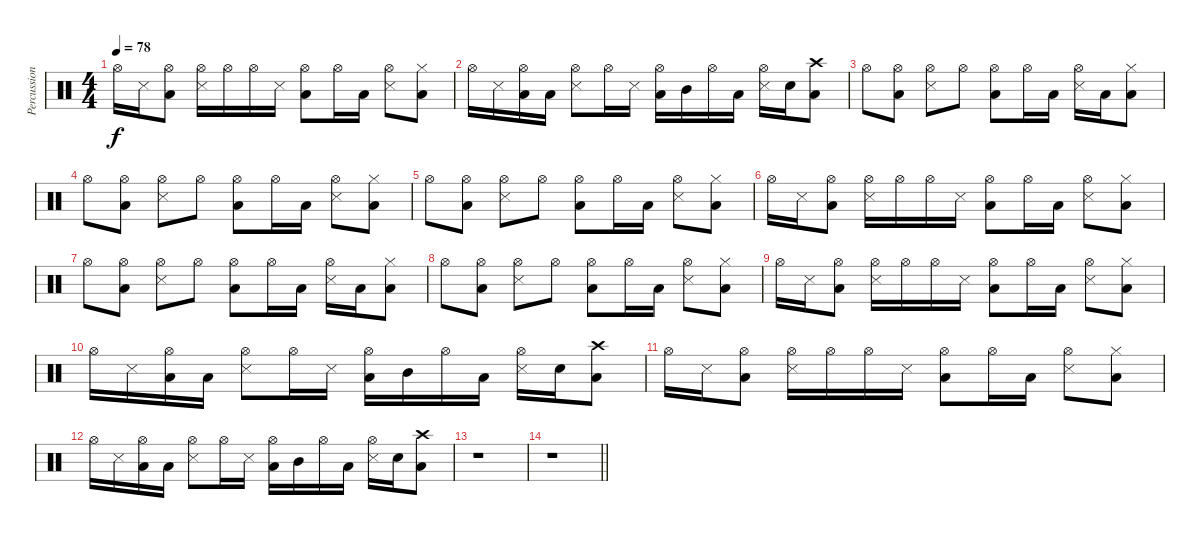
\track ("Percussions" "Percussion") {instrument percussion}
\staff {score}
\articulation defaults
\ts (4 4)
\tempo 78
\clef neutral
\ks c "Hi-Hat (open)".16{dy f} "Snare (side stick) 3".16
("Hi-Hat (open)" "Low Floor Tom (hit)").8 ("Hi-Hat (open)" "Snare (side stick) 3").16 "Hi-Hat (open)".16 "Hi-Hat (open)".16 "Snare (side stick) 3".16 ("Hi-Hat (open)" "Low Floor Tom (hit)").8 "Hi-Hat (open)".16 "Low Floor Tom (hit)".16 ("Hi-Hat (open)" "Snare (side stick) 3").8 ("Hi-Hat (closed)" "Low Floor Tom (hit)").8 |
"Hi-Hat (open)".16 "Snare (side stick) 3".16 ("Hi-Hat (open)" "Low Floor Tom (hit)").16 "Low Floor Tom (hit)".16 ("Hi-Hat (open)" "Snare (side stick) 3").8 "Hi-Hat (open)".16 "Snare (side stick) 3".16 ("Hi-Hat (open)" "Low Floor Tom (hit)").16 "Mid Tom (hit)".16 "Hi-Hat (open)".16 "Low Floor Tom (hit)".16 ("Hi-Hat (open)" "Snare (side stick) 3").16 "Snare (hit) 2".16 ("Crash high (hit)" "Low Floor Tom (hit)").8 |
"Hi-Hat (open)".8 ("Hi-Hat (open)" "Low Floor Tom (hit)").8 ("Hi-Hat (open)" "Snare (side stick) 3").8 "Hi-Hat (open)".8 ("Hi-Hat (open)" "Low Floor Tom (hit)").8 "Hi-Hat (open)".16 "Low Floor Tom (hit)".16 ("Hi-Hat (open)" "Snare (side stick) 3").16 "Low Floor Tom (hit)".16 ("Hi-Hat (closed)" "Low Floor Tom (hit)").8 |
"Hi-Hat (open)".8 ("Hi-Hat (open)" "Low Floor Tom (hit)").8 ("Hi-Hat (open)" "Snare (side stick) 3").8 "Hi-Hat (open)".8 ("Hi-Hat (open)" "Low Floor Tom (hit)").8 "Hi-Hat (open)".16 "Low Floor Tom (hit)".16 ("Hi-Hat (open)" "Snare (side stick) 3").8 ("Hi-Hat (closed)" "Low Floor Tom (hit)").8 |
"Hi-Hat (open)".8 ("Hi-Hat (open)" "Low Floor Tom (hit)").8 ("Hi-Hat (open)" "Snare (side stick) 3").8 "Hi-Hat (open)".8 ("Hi-Hat (open)" "Low Floor Tom (hit)").8 "Hi-Hat (open)".16 "Low Floor Tom (hit)".16 ("Hi-Hat (open)" "Snare (side stick) 3").8 ("Hi-Hat (closed)" "Low Floor Tom (hit)").8 |
"Hi-Hat (open)".16 "Snare (side stick) 3".16 ("Hi-Hat (open)" "Low Floor Tom (hit)").8 ("Hi-Hat (open)" "Snare (side stick) 3").16 "Hi-Hat (open)".16 "Hi-Hat (open)".16 "Snare (side stick) 3".16 ("Hi-Hat (open)" "Low Floor Tom (hit)").8 "Hi-Hat (open)".16 "Low Floor Tom (hit)".16 ("Hi-Hat (open)" "Snare (side stick) 3").8 ("Hi-Hat (closed)" "Low Floor Tom (hit)").8 |
"Hi-Hat (open)".8 ("Hi-Hat (open)" "Low Floor Tom (hit)").8 ("Hi-Hat (open)" "Snare (side stick) 3").8 "Hi-Hat (open)".8 ("Hi-Hat (open)" "Low Floor Tom (hit)").8 "Hi-Hat (open)".16 "Low Floor Tom (hit)".16 ("Hi-Hat (open)" "Snare (side stick) 3").16 "Low Floor Tom (hit)".16 ("Hi-Hat (closed)" "Low Floor Tom (hit)").8 |
"Hi-Hat (open)".8 ("Hi-Hat (open)" "Low Floor Tom (hit)").8 ("Hi-Hat (open)" "Snare (side stick) 3").8 "Hi-Hat (open)".8 ("Hi-Hat (open)" "Low Floor Tom (hit)").8 "Hi-Hat (open)".16 "Low Floor Tom (hit)".16 ("Hi-Hat (open)" "Snare (side stick) 3").8 ("Hi-Hat (closed)" "Low Floor Tom (hit)").8 |
"Hi-Hat (open)".16 "Snare (side stick) 3".16 ("Hi-Hat (open)" "Low Floor Tom (hit)").8 ("Hi-Hat (open)" "Snare (side stick) 3").16 "Hi-Hat (open)".16 "Hi-Hat (open)".16 "Snare (side stick) 3".16 ("Hi-Hat (open)" "Low Floor Tom (hit)").8 "Hi-Hat (open)".16 "Low Floor Tom (hit)".16 ("Hi-Hat (open)" "Snare (side stick) 3").8 ("Hi-Hat (closed)" "Low Floor Tom (hit)").8 |
"Hi-Hat (open)".16 "Snare (side stick) 3".16 ("Hi-Hat (open)" "Low Floor Tom (hit)").16 "Low Floor Tom (hit)".16 ("Hi-Hat (open)" "Snare (side stick) 3").8 "Hi-Hat (open)".16 "Snare (side stick) 3".16 ("Hi-Hat (open)" "Low Floor Tom (hit)").16 "Mid Tom (hit)".16 "Hi-Hat (open)".16 "Low Floor Tom (hit)".16 ("Hi-Hat (open)" "Snare (side stick) 3").16 "Snare (hit) 2".16 ("Crash high (hit)" "Low Floor Tom (hit)").8 |
"Hi-Hat (open)".16 "Snare (side stick) 3".16 ("Hi-Hat (open)" "Low Floor Tom (hit)").8 ("Hi-Hat (open)" "Snare (side stick) 3").16 "Hi-Hat (open)".16 "Hi-Hat (open)".16 "Snare (side stick) 3".16 ("Hi-Hat (open)" "Low Floor Tom (hit)").8 "Hi-Hat (open)".16 "Low Floor Tom (hit)".16 ("Hi-Hat (open)" "Snare (side stick) 3").8 ("Hi-Hat (closed)" "Low Floor Tom (hit)").8 |
"Hi-Hat (open)".16 "Snare (side stick) 3".16 ("Hi-Hat (open)" "Low Floor Tom (hit)").16 "Low Floor Tom (hit)".16 ("Hi-Hat (open)" "Snare (side stick) 3").8 "Hi-Hat (open)".16 "Snare (side stick) 3".16 ("Hi-Hat (open)" "Low Floor Tom (hit)").16 "Mid Tom (hit)".16 "Hi-Hat (open)".16 "Low Floor Tom (hit)".16 ("Hi-Hat (open)" "Snare (side stick) 3").16 "Snare (hit) 2".16 ("Crash high (hit)" "Low Floor Tom (hit)").8 |
r.1 |
\barLineRight lightlight
r.1
